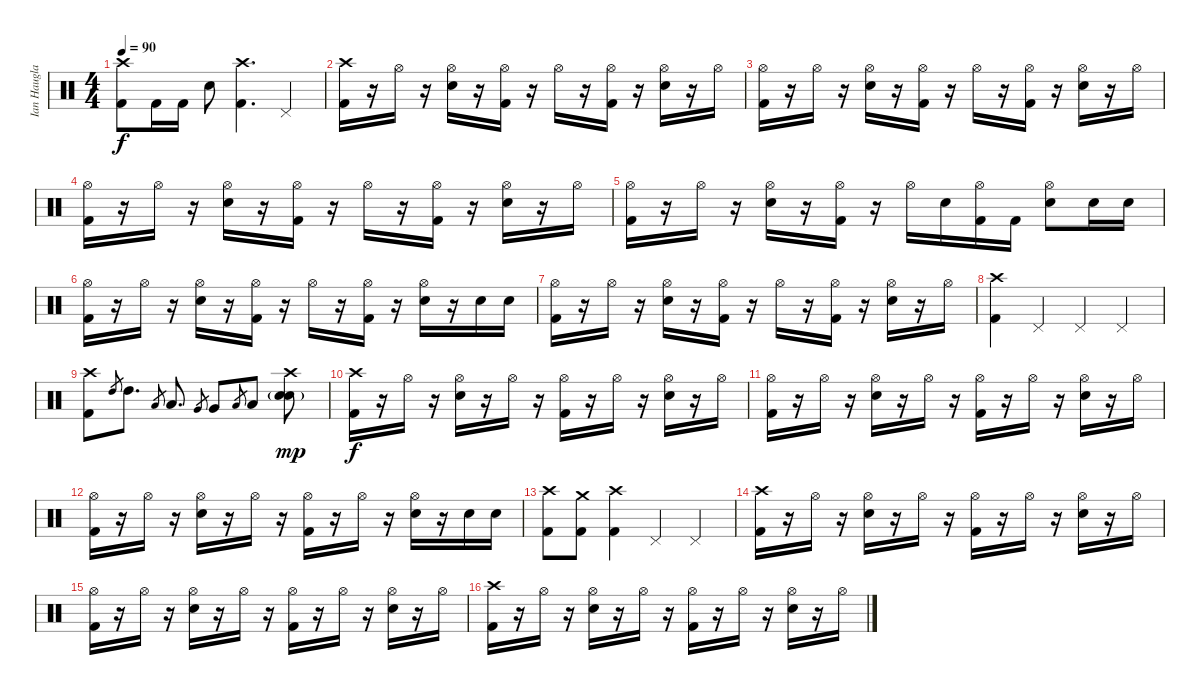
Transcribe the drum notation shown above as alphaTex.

\track ("Ian Haugland" "Ian Haugla") {instrument percussion}
\staff {score}
\articulation defaults
\ts (4 4)
\tempo 90
\clef neutral
\ks c
("Crash high (hit)" "Kick (hit) 2").8{dy f} "Kick (hit) 2".16 "Kick (hit) 2".16 "Electric Snare (hit)".8 ("Crash high (hit)" "Kick (hit) 2").4{d} "Pedal Hi-Hat (hit)".4 |
("Crash high (hit)" "Kick (hit) 2").16 r.16 "Hi-Hat (open)".16 r.16 ("Hi-Hat (open)" "Electric Snare (hit)").16 r.16 ("Hi-Hat (open)" "Kick (hit) 2").16 r.16 "Hi-Hat (open)".16 r.16 ("Hi-Hat (open)" "Kick (hit) 2").16 r.16 ("Hi-Hat (open)" "Electric Snare (hit)").16 r.16 "Hi-Hat (open)".16 |
("Hi-Hat (open)" "Kick (hit) 2").16 r.16 "Hi-Hat (open)".16 r.16 ("Hi-Hat (open)" "Electric Snare (hit)").16 r.16 ("Hi-Hat (open)" "Kick (hit) 2").16 r.16 "Hi-Hat (open)".16 r.16 ("Hi-Hat (open)" "Kick (hit) 2").16 r.16 ("Hi-Hat (open)" "Electric Snare (hit)").16 r.16 "Hi-Hat (open)".16 |
("Hi-Hat (open)" "Kick (hit) 2").16 r.16 "Hi-Hat (open)".16 r.16 ("Hi-Hat (open)" "Electric Snare (hit)").16 r.16 ("Hi-Hat (open)" "Kick (hit) 2").16 r.16 "Hi-Hat (open)".16 r.16 ("Hi-Hat (open)" "Kick (hit) 2").16 r.16 ("Hi-Hat (open)" "Electric Snare (hit)").16 r.16 "Hi-Hat (open)".16 |
("Hi-Hat (open)" "Kick (hit) 2").16 r.16 "Hi-Hat (open)".16 r.16 ("Hi-Hat (open)" "Electric Snare (hit)").16 r.16 ("Hi-Hat (open)" "Kick (hit) 2").16 r.16 "Hi-Hat (open)".16 "Electric Snare (hit)".16 ("Hi-Hat (open)" "Kick (hit) 2").16 "Kick (hit) 2".16 ("Hi-Hat (open)" "Electric Snare (hit)").8 "Electric Snare (hit)".16 "Electric Snare (hit)".16 |
("Hi-Hat (open)" "Kick (hit) 2").16 r.16 "Hi-Hat (open)".16 r.16 ("Hi-Hat (open)" "Electric Snare (hit)").16 r.16 ("Hi-Hat (open)" "Kick (hit) 2").16 r.16 "Hi-Hat (open)".16 r.16 ("Hi-Hat (open)" "Kick (hit) 2").16 r.16 ("Hi-Hat (open)" "Electric Snare (hit)").16 r.16 "Electric Snare (hit)".16 "Electric Snare (hit)".16 |
("Hi-Hat (open)" "Kick (hit) 2").16 r.16 "Hi-Hat (open)".16 r.16 ("Hi-Hat (open)" "Electric Snare (hit)").16 r.16 ("Hi-Hat (open)" "Kick (hit) 2").16 r.16 "Hi-Hat (open)".16 r.16 ("Hi-Hat (open)" "Kick (hit) 2").16 r.16 ("Hi-Hat (open)" "Electric Snare (hit)").16 r.16 "Hi-Hat (open)".16 |
("Crash high (hit)" "Kick (hit) 2").4 "Pedal Hi-Hat (hit)".4 "Pedal Hi-Hat (hit)".4 "Pedal Hi-Hat (hit)".4 |
("Crash high (hit)" "Kick (hit) 2").8 "High Tom (hit)".8{gr} "High Tom (hit)".8{d} "Low Tom (hit)".8{gr} "Low Tom (hit)".8{d} "Very Low Tom (hit)".8{gr} "Very Low Tom (hit)".8 "Low Floor Tom (hit)".8{gr} "Low Floor Tom (hit)".8 ("Crash high (hit)" "Snare (hit) 2"{g} "Electric Snare (hit)").8{dy mp} |
("Crash high (hit)" "Kick (hit) 2").16{dy f} r.16 "Hi-Hat (open)".16 r.16 ("Hi-Hat (open)" "Electric Snare (hit)").16 r.16 "Hi-Hat (open)".16 r.16 ("Hi-Hat (open)" "Kick (hit) 2").16 r.16 "Hi-Hat (open)".16 r.16 ("Hi-Hat (open)" "Electric Snare (hit)").16 r.16 "Hi-Hat (open)".16 |
("Hi-Hat (open)" "Kick (hit) 2").16 r.16 "Hi-Hat (open)".16 r.16 ("Hi-Hat (open)" "Electric Snare (hit)").16 r.16 "Hi-Hat (open)".16 r.16 ("Hi-Hat (open)" "Kick (hit) 2").16 r.16 "Hi-Hat (open)".16 r.16 ("Hi-Hat (open)" "Electric Snare (hit)").16 r.16 "Hi-Hat (open)".16 |
("Hi-Hat (open)" "Kick (hit) 2").16 r.16 "Hi-Hat (open)".16 r.16 ("Hi-Hat (open)" "Electric Snare (hit)").16 r.16 "Hi-Hat (open)".16 r.16 ("Hi-Hat (open)" "Kick (hit) 2").16 r.16 "Hi-Hat (open)".16 r.16 ("Hi-Hat (open)" "Electric Snare (hit)").16 r.16 "Electric Snare (hit)".16 "Electric Snare (hit)".16 |
("Crash high (hit)" "Kick (hit) 2").8 ("Crash medium (hit)" "Kick (hit) 2").8 ("Crash high (hit)" "Kick (hit) 2").4 "Pedal Hi-Hat (hit)".4 "Pedal Hi-Hat (hit)".4 |
("Crash high (hit)" "Kick (hit) 2").16 r.16 "Hi-Hat (open)".16 r.16 ("Hi-Hat (open)" "Electric Snare (hit)").16 r.16 "Hi-Hat (open)".16 r.16 ("Hi-Hat (open)" "Kick (hit) 2").16 r.16 "Hi-Hat (open)".16 r.16 ("Hi-Hat (open)" "Electric Snare (hit)").16 r.16 "Hi-Hat (open)".16 |
("Hi-Hat (open)" "Kick (hit) 2").16 r.16 "Hi-Hat (open)".16 r.16 ("Hi-Hat (open)" "Electric Snare (hit)").16 r.16 "Hi-Hat (open)".16 r.16 ("Hi-Hat (open)" "Kick (hit) 2").16 r.16 "Hi-Hat (open)".16 r.16 ("Hi-Hat (open)" "Electric Snare (hit)").16 r.16 "Hi-Hat (open)".16 |
("Crash high (hit)" "Kick (hit) 2").16 r.16 "Hi-Hat (open)".16 r.16 ("Hi-Hat (open)" "Electric Snare (hit)").16 r.16 "Hi-Hat (open)".16 r.16 ("Hi-Hat (open)" "Kick (hit) 2").16 r.16 "Hi-Hat (open)".16 r.16 ("Hi-Hat (open)" "Electric Snare (hit)").16 r.16 "Hi-Hat (open)".16
